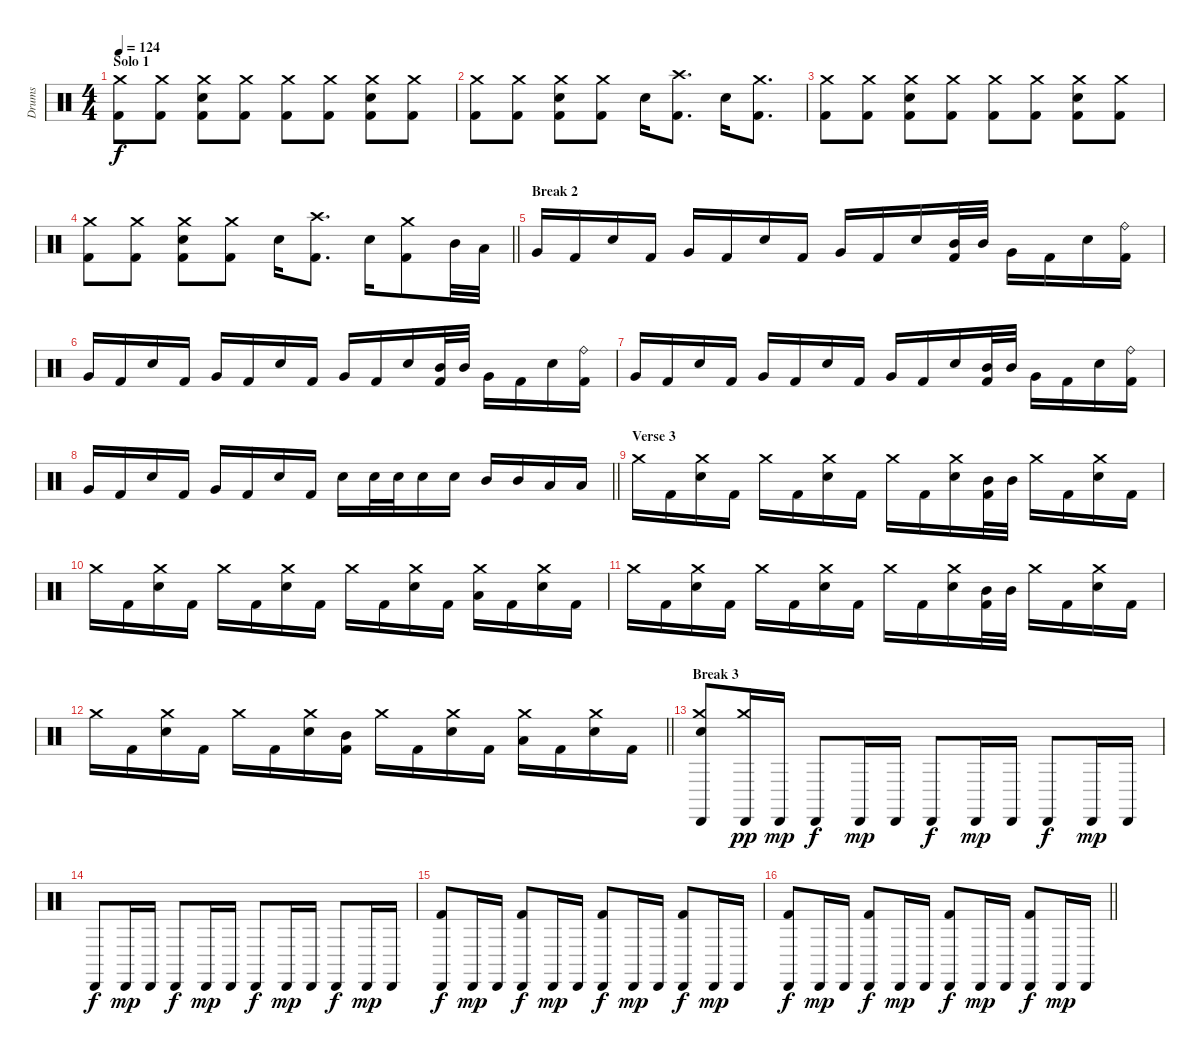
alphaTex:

\track ("Drums" "Drums") {instrument percussion}
\staff {score}
\articulation defaults
\ts (4 4)
\section ("" "Solo 1")
\tempo 124
\clef neutral
\ks c
("Crash medium (hit)" "Kick (hit) 2").8{dy f} ("Crash medium (hit)" "Kick (hit) 2").8 ("Crash medium (hit)" "Electric Snare (hit)" "Kick (hit) 2").8 ("Crash medium (hit)" "Kick (hit) 2").8 ("Crash medium (hit)" "Kick (hit) 2").8 ("Crash medium (hit)" "Kick (hit) 2").8 ("Crash medium (hit)" "Electric Snare (hit)" "Kick (hit) 2").8 ("Crash medium (hit)" "Kick (hit) 2").8 |
("Crash medium (hit)" "Kick (hit) 2").8 ("Crash medium (hit)" "Kick (hit) 2").8 ("Crash medium (hit)" "Electric Snare (hit)" "Kick (hit) 2").8 ("Crash medium (hit)" "Kick (hit) 2").8 "Electric Snare (hit)".16 ("Crash high (hit)" "Kick (hit) 2").8{d} "Electric Snare (hit)".16 ("Crash medium (hit)" "Kick (hit) 2").8{d} |
("Crash medium (hit)" "Kick (hit) 2").8 ("Crash medium (hit)" "Kick (hit) 2").8 ("Crash medium (hit)" "Electric Snare (hit)" "Kick (hit) 2").8 ("Crash medium (hit)" "Kick (hit) 2").8 ("Crash medium (hit)" "Kick (hit) 2").8 ("Crash medium (hit)" "Kick (hit) 2").8 ("Crash medium (hit)" "Electric Snare (hit)" "Kick (hit) 2").8 ("Crash medium (hit)" "Kick (hit) 2").8 |
\barLineRight lightlight
("Crash medium (hit)" "Kick (hit) 2").8 ("Crash medium (hit)" "Kick (hit) 2").8 ("Crash medium (hit)" "Electric Snare (hit)" "Kick (hit) 2").8 ("Crash medium (hit)" "Kick (hit) 2").8 "Electric Snare (hit)".16 ("Crash high (hit)" "Kick (hit) 2").8{d} "Electric Snare (hit)".16 ("Crash medium (hit)" "Kick (hit) 2").8 "Mid Tom (hit)".32 "Low Tom (hit)".32 |
\section ("" "Break 2")
"Very Low Tom (hit)".16 "Kick (hit) 2".16 "Electric Snare (hit)".16 "Kick (hit) 2".16 "Very Low Tom (hit)".16 "Kick (hit) 2".16 "Electric Snare (hit)".16 "Kick (hit) 2".16 "Very Low Tom (hit)".16 "Kick (hit) 2".16 "Electric Snare (hit)".16 ("Mid Tom (hit)" "Kick (hit) 2").32 "Mid Tom (hit)".32 "Very Low Tom (hit)".16 "Kick (hit) 2".16 "Electric Snare (hit)".16 ("Ride (bell)" "Kick (hit) 2").16 |
"Very Low Tom (hit)".16 "Kick (hit) 2".16 "Electric Snare (hit)".16 "Kick (hit) 2".16 "Very Low Tom (hit)".16 "Kick (hit) 2".16 "Electric Snare (hit)".16 "Kick (hit) 2".16 "Very Low Tom (hit)".16 "Kick (hit) 2".16 "Electric Snare (hit)".16 ("Mid Tom (hit)" "Kick (hit) 2").32 "Mid Tom (hit)".32 "Very Low Tom (hit)".16 "Kick (hit) 2".16 "Electric Snare (hit)".16 ("Ride (bell)" "Kick (hit) 2").16 |
"Very Low Tom (hit)".16 "Kick (hit) 2".16 "Electric Snare (hit)".16 "Kick (hit) 2".16 "Very Low Tom (hit)".16 "Kick (hit) 2".16 "Electric Snare (hit)".16 "Kick (hit) 2".16 "Very Low Tom (hit)".16 "Kick (hit) 2".16 "Electric Snare (hit)".16 ("Mid Tom (hit)" "Kick (hit) 2").32 "Mid Tom (hit)".32 "Very Low Tom (hit)".16 "Kick (hit) 2".16 "Electric Snare (hit)".16 ("Ride (bell)" "Kick (hit) 2").16 |
\barLineRight lightlight "Very Low Tom (hit)".16 "Kick (hit) 2".16 "Electric Snare (hit)".16 "Kick (hit) 2".16 "Very Low Tom (hit)".16 "Kick (hit) 2".16 "Electric Snare (hit)".16 "Kick (hit) 2".16 "Electric Snare (hit)".16 "Electric Snare (hit)".32 "Electric Snare (hit)".32 "Electric Snare (hit)".16 "Electric Snare (hit)".16 "Mid Tom (hit)".16 "Mid Tom (hit)".16 "Low Tom (hit)".16 "Low Tom (hit)".16
|
\section ("" "Verse 3")
"Crash medium (hit)".16 "Kick (hit) 2".16 ("Crash medium (hit)" "Electric Snare (hit)").16 "Kick (hit) 2".16 "Crash medium (hit)".16 "Kick (hit) 2".16 ("Crash medium (hit)" "Electric Snare (hit)").16 "Kick (hit) 2".16 "Crash medium (hit)".16 "Kick (hit) 2".16 ("Crash medium (hit)" "Electric Snare (hit)").16 ("Mid Tom (hit)" "Kick (hit) 2").32 "Mid Tom (hit)".32 "Crash medium (hit)".16 "Kick (hit) 2".16 ("Crash medium (hit)" "Electric Snare (hit)").16 "Kick (hit) 2".16 |
"Crash medium (hit)".16 "Kick (hit) 2".16 ("Crash medium (hit)" "Electric Snare (hit)").16 "Kick (hit) 2".16 "Crash medium (hit)".16 "Kick (hit) 2".16 ("Crash medium (hit)" "Electric Snare (hit)").16 "Kick (hit) 2".16 "Crash medium (hit)".16 "Kick (hit) 2".16 ("Crash medium (hit)" "Electric Snare (hit)").16 "Kick (hit) 2".16 ("Crash medium (hit)" "Low Tom (hit)").16 "Kick (hit) 2".16 ("Crash medium (hit)" "Electric Snare (hit)").16 "Kick (hit) 2".16 |
"Crash medium (hit)".16 "Kick (hit) 2".16 ("Crash medium (hit)" "Electric Snare (hit)").16 "Kick (hit) 2".16 "Crash medium (hit)".16 "Kick (hit) 2".16 ("Crash medium (hit)" "Electric Snare (hit)").16 "Kick (hit) 2".16 "Crash medium (hit)".16 "Kick (hit) 2".16 ("Crash medium (hit)" "Electric Snare (hit)").16 ("Mid Tom (hit)" "Kick (hit) 2").32 "Mid Tom (hit)".32 "Crash medium (hit)".16 "Kick (hit) 2".16 ("Crash medium (hit)" "Electric Snare (hit)").16 "Kick (hit) 2".16 |
\barLineRight lightlight "Crash medium (hit)".16 "Kick (hit) 2".16
("Crash medium (hit)" "Electric Snare (hit)").16 "Kick (hit) 2".16 "Crash medium (hit)".16 "Kick (hit) 2".16 ("Crash medium (hit)" "Electric Snare (hit)").16 ("Mid Tom (hit)" "Kick (hit) 2").16 "Crash medium (hit)".16 "Kick (hit) 2".16 ("Crash medium (hit)" "Electric Snare (hit)").16 "Kick (hit) 2".16 ("Crash medium (hit)" "Low Tom (hit)").16 "Kick (hit) 2".16 ("Crash medium (hit)" "Electric Snare (hit)").16 "Kick (hit) 2".16 |
\section ("" "Break 3")
("Cabasa (hit)" "Crash medium (hit)" "Electric Snare (hit)").8 ("Cabasa (hit)" "Crash medium (hit)").16{dy pp} "Cabasa (hit)".16{dy mp} "Cabasa (hit)".8{dy f} "Cabasa (hit)".16{dy mp} "Cabasa (hit)".16 "Cabasa (hit)".8{dy f} "Cabasa (hit)".16{dy mp} "Cabasa (hit)".16 "Cabasa (hit)".8{dy f} "Cabasa (hit)".16{dy mp} "Cabasa (hit)".16 |
"Cabasa (hit)".8{dy f} "Cabasa (hit)".16{dy mp} "Cabasa (hit)".16 "Cabasa (hit)".8{dy f} "Cabasa (hit)".16{dy mp} "Cabasa (hit)".16 "Cabasa (hit)".8{dy f} "Cabasa (hit)".16{dy mp} "Cabasa (hit)".16 "Cabasa (hit)".8{dy f} "Cabasa (hit)".16{dy mp} "Cabasa (hit)".16 |
("Cabasa (hit)" "Kick (hit) 2").8{dy f} "Cabasa (hit)".16{dy mp} "Cabasa (hit)".16 ("Cabasa (hit)" "Kick (hit) 2").8{dy f} "Cabasa (hit)".16{dy mp} "Cabasa (hit)".16 ("Cabasa (hit)" "Kick (hit) 2").8{dy f} "Cabasa (hit)".16{dy mp} "Cabasa (hit)".16 ("Cabasa (hit)" "Kick (hit) 2").8{dy f} "Cabasa (hit)".16{dy mp} "Cabasa (hit)".16 |
\barLineRight lightlight
("Cabasa (hit)" "Kick (hit) 2").8{dy f} "Cabasa (hit)".16{dy mp} "Cabasa (hit)".16 ("Cabasa (hit)" "Kick (hit) 2").8{dy f} "Cabasa (hit)".16{dy mp} "Cabasa (hit)".16 ("Cabasa (hit)" "Kick (hit) 2").8{dy f} "Cabasa (hit)".16{dy mp} "Cabasa (hit)".16 ("Cabasa (hit)" "Kick (hit) 2").8{dy f} "Cabasa (hit)".16{dy mp} "Cabasa (hit)".16
